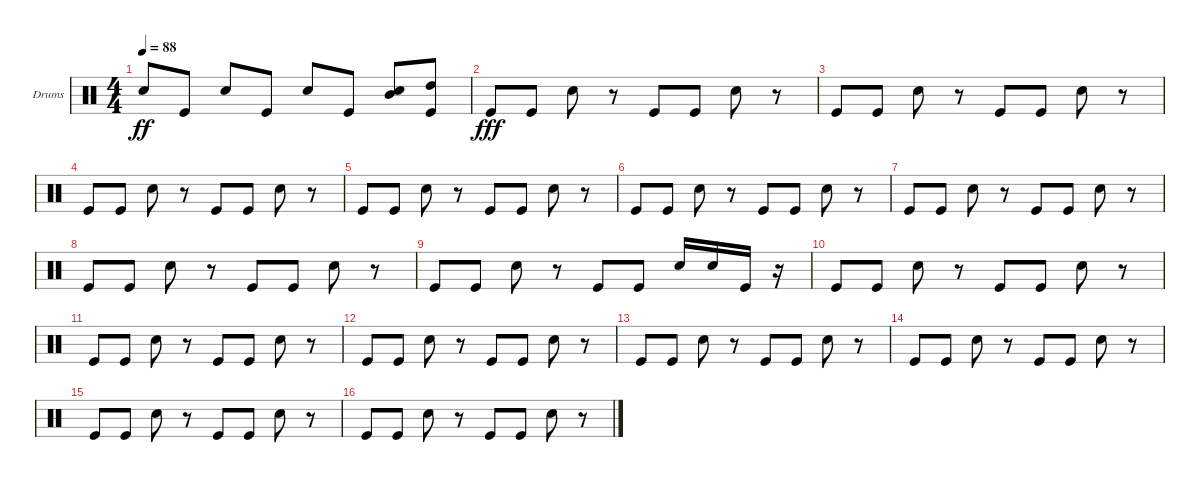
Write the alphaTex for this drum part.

\defaultSystemsLayout 4
\bracketExtendMode groupsimilarinstruments
\firstSystemTrackNameOrientation horizontal
\otherSystemsTrackNameOrientation horizontal
\track ("Drumkit" "Drums") {instrument percussion}
\staff {score}
\articulation defaults
\ts (4 4)
\tempo 88
\clef neutral
\ks c "Snare (hit) 2".8{dy ff} "Kick (hit)".8 "Snare (hit) 2".8 "Kick (hit)".8 "Snare (hit) 2".8 "Kick (hit)".8
("Snare (hit) 2" "Mid Tom (hit)").8 ("Kick (hit)" "High Tom (hit)").8 |
"Kick (hit)".8{dy fff} "Kick (hit)".8 "Snare (hit) 2".8 r.8 "Kick (hit)".8 "Kick (hit)".8 "Snare (hit) 2".8 r.8 |
"Kick (hit)".8 "Kick (hit)".8 "Snare (hit) 2".8 r.8 "Kick (hit)".8 "Kick (hit)".8 "Snare (hit) 2".8 r.8 |
"Kick (hit)".8 "Kick (hit)".8 "Snare (hit) 2".8 r.8 "Kick (hit)".8 "Kick (hit)".8 "Snare (hit) 2".8 r.8 |
"Kick (hit)".8 "Kick (hit)".8 "Snare (hit) 2".8 r.8 "Kick (hit)".8 "Kick (hit)".8 "Snare (hit) 2".8 r.8 |
"Kick (hit)".8 "Kick (hit)".8 "Snare (hit) 2".8 r.8 "Kick (hit)".8 "Kick (hit)".8 "Snare (hit) 2".8 r.8 |
"Kick (hit)".8 "Kick (hit)".8 "Snare (hit) 2".8 r.8 "Kick (hit)".8 "Kick (hit)".8 "Snare (hit) 2".8 r.8 |
"Kick (hit)".8 "Kick (hit)".8 "Snare (hit) 2".8 r.8 "Kick (hit)".8 "Kick (hit)".8 "Snare (hit) 2".8 r.8 |
"Kick (hit)".8 "Kick (hit)".8 "Snare (hit) 2".8 r.8 "Kick (hit)".8 "Kick (hit)".8 "Snare (hit) 2".16 "Snare (hit) 2".16 "Kick (hit)".16 r.16 |
"Kick (hit)".8 "Kick (hit)".8 "Snare (hit) 2".8 r.8 "Kick (hit)".8 "Kick (hit)".8 "Snare (hit) 2".8 r.8 |
"Kick (hit)".8 "Kick (hit)".8 "Snare (hit) 2".8 r.8 "Kick (hit)".8 "Kick (hit)".8 "Snare (hit) 2".8 r.8 |
"Kick (hit)".8 "Kick (hit)".8 "Snare (hit) 2".8 r.8 "Kick (hit)".8 "Kick (hit)".8 "Snare (hit) 2".8 r.8 |
"Kick (hit)".8 "Kick (hit)".8 "Snare (hit) 2".8 r.8 "Kick (hit)".8 "Kick (hit)".8 "Snare (hit) 2".8 r.8 |
"Kick (hit)".8 "Kick (hit)".8 "Snare (hit) 2".8 r.8 "Kick (hit)".8 "Kick (hit)".8 "Snare (hit) 2".8 r.8 |
"Kick (hit)".8 "Kick (hit)".8 "Snare (hit) 2".8 r.8 "Kick (hit)".8 "Kick (hit)".8 "Snare (hit) 2".8 r.8 |
"Kick (hit)".8 "Kick (hit)".8 "Snare (hit) 2".8 r.8 "Kick (hit)".8 "Kick (hit)".8 "Snare (hit) 2".8 r.8
